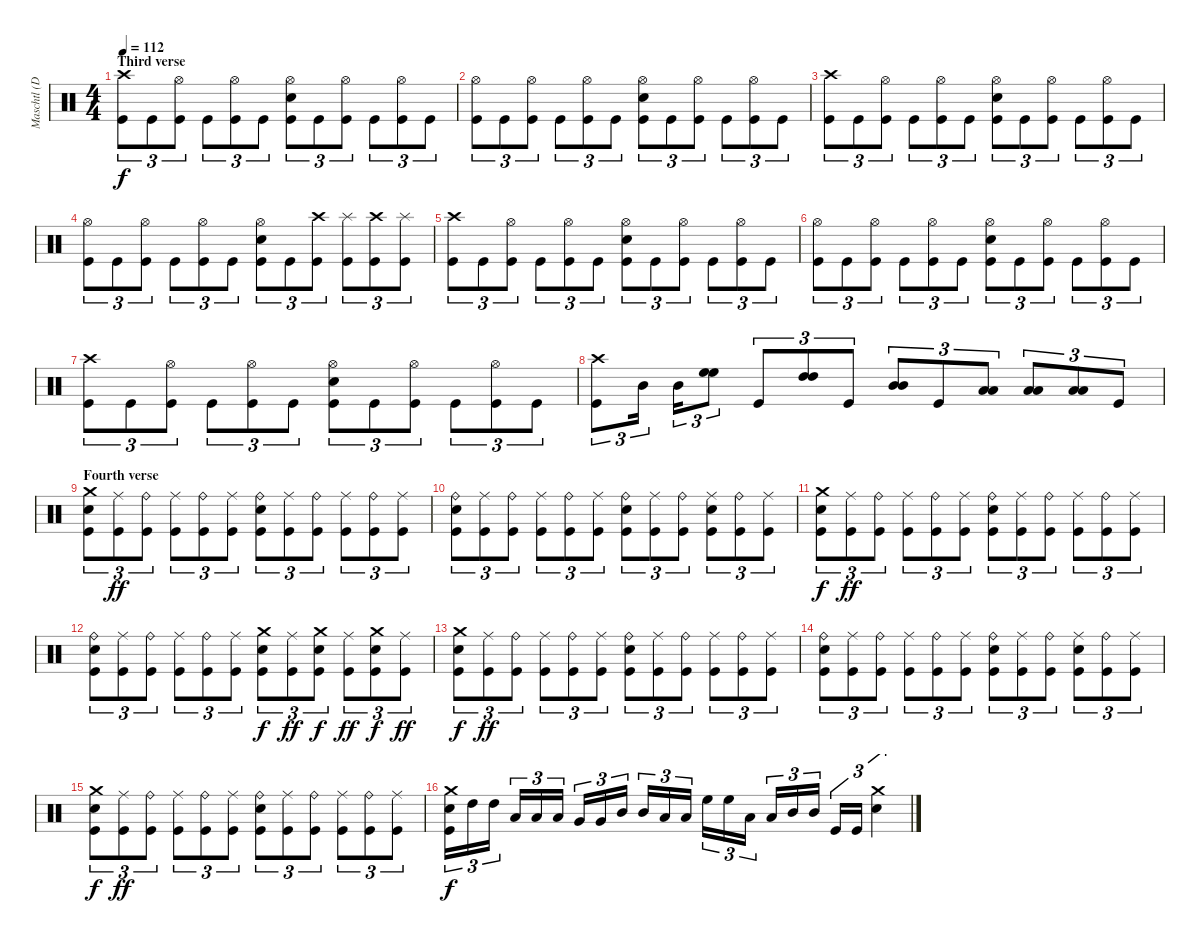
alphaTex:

\track ("Maschtl (Drums)" "Maschtl (D") {instrument percussion}
\staff {score}
\articulation defaults
\ts (4 4)
\section ("" "Third verse")
\tempo 112
\clef neutral
\ks c
("Crash high (hit)" "Kick (hit)").8{tu (3 2) dy f} "Kick (hit)".8{tu (3 2)} ("Hi-Hat (open)" "Kick (hit)").8{tu (3 2)} "Kick (hit)".8{tu (3 2)} ("Hi-Hat (open)" "Kick (hit)").8{tu (3 2)} "Kick (hit)".8{tu (3 2)} ("Hi-Hat (open)" "Electric Snare (hit)" "Kick (hit)").8{tu (3 2)} "Kick (hit)".8{tu (3 2)} ("Hi-Hat (open)" "Kick (hit)").8{tu (3 2)} "Kick (hit)".8{tu (3 2)} ("Hi-Hat (open)" "Kick (hit)").8{tu (3 2)} "Kick (hit)".8{tu (3 2)} |
("Hi-Hat (open)" "Kick (hit)").8{tu (3 2)} "Kick (hit)".8{tu (3 2)} ("Hi-Hat (open)" "Kick (hit)").8{tu (3 2)} "Kick (hit)".8{tu (3 2)} ("Hi-Hat (open)" "Kick (hit)").8{tu (3 2)} "Kick (hit)".8{tu (3 2)} ("Hi-Hat (open)" "Electric Snare (hit)" "Kick (hit)").8{tu (3 2)} "Kick (hit)".8{tu (3 2)} ("Hi-Hat (open)" "Kick (hit)").8{tu (3 2)} "Kick (hit)".8{tu (3 2)} ("Hi-Hat (open)" "Kick (hit)").8{tu (3 2)} "Kick (hit)".8{tu (3 2)} |
("Crash high (hit)" "Kick (hit)").8{tu (3 2)} "Kick (hit)".8{tu (3 2)} ("Hi-Hat (open)" "Kick (hit)").8{tu (3 2)} "Kick (hit)".8{tu (3 2)} ("Hi-Hat (open)" "Kick (hit)").8{tu (3 2)} "Kick (hit)".8{tu (3 2)} ("Hi-Hat (open)" "Electric Snare (hit)" "Kick (hit)").8{tu (3 2)} "Kick (hit)".8{tu (3 2)} ("Hi-Hat (open)" "Kick (hit)").8{tu (3 2)} "Kick (hit)".8{tu (3 2)} ("Hi-Hat (open)" "Kick (hit)").8{tu (3 2)} "Kick (hit)".8{tu (3 2)} |
("Hi-Hat (open)" "Kick (hit)").8{tu (3 2)} "Kick (hit)".8{tu (3 2)} ("Hi-Hat (open)" "Kick (hit)").8{tu (3 2)} "Kick (hit)".8{tu (3 2)} ("Hi-Hat (open)" "Kick (hit)").8{tu (3 2)} "Kick (hit)".8{tu (3 2)} ("Hi-Hat (open)" "Electric Snare (hit)" "Kick (hit)").8{tu (3 2)} "Kick (hit)".8{tu (3 2)} ("Crash high (hit)" "Kick (hit)").8{tu (3 2)} ("Splash (hit)" "Kick (hit)").8{tu (3 2)} ("Crash high (hit)" "Kick (hit)").8{tu (3 2)} ("Splash (hit)" "Kick (hit)").8{tu (3 2)} |
("Crash high (hit)" "Kick (hit)").8{tu (3 2)} "Kick (hit)".8{tu (3 2)} ("Hi-Hat (open)" "Kick (hit)").8{tu (3 2)} "Kick (hit)".8{tu (3 2)} ("Hi-Hat (open)" "Kick (hit)").8{tu (3 2)} "Kick (hit)".8{tu (3 2)} ("Hi-Hat (open)" "Electric Snare (hit)" "Kick (hit)").8{tu (3 2)} "Kick (hit)".8{tu (3 2)} ("Hi-Hat (open)" "Kick (hit)").8{tu (3 2)} "Kick (hit)".8{tu (3 2)} ("Hi-Hat (open)" "Kick (hit)").8{tu (3 2)} "Kick (hit)".8{tu (3 2)} |
("Hi-Hat (open)" "Kick (hit)").8{tu (3 2)} "Kick (hit)".8{tu (3 2)} ("Hi-Hat (open)" "Kick (hit)").8{tu (3 2)} "Kick (hit)".8{tu (3 2)} ("Hi-Hat (open)" "Kick (hit)").8{tu (3 2)} "Kick (hit)".8{tu (3 2)} ("Hi-Hat (open)" "Electric Snare (hit)" "Kick (hit)").8{tu (3 2)} "Kick (hit)".8{tu (3 2)} ("Hi-Hat (open)" "Kick (hit)").8{tu (3 2)} "Kick (hit)".8{tu (3 2)} ("Hi-Hat (open)" "Kick (hit)").8{tu (3 2)} "Kick (hit)".8{tu (3 2)} |
("Crash high (hit)" "Kick (hit)").8{tu (3 2)} "Kick (hit)".8{tu (3 2)} ("Hi-Hat (open)" "Kick (hit)").8{tu (3 2)} "Kick (hit)".8{tu (3 2)} ("Hi-Hat (open)" "Kick (hit)").8{tu (3 2)} "Kick (hit)".8{tu (3 2)} ("Hi-Hat (open)" "Electric Snare (hit)" "Kick (hit)").8{tu (3 2)} "Kick (hit)".8{tu (3 2)} ("Hi-Hat (open)" "Kick (hit)").8{tu (3 2)} "Kick (hit)".8{tu (3 2)} ("Hi-Hat (open)" "Kick (hit)").8{tu (3 2)} "Kick (hit)".8{tu (3 2)} |
("Crash high (hit)" "Kick (hit)").8{tu (3 2)} "Mid Tom (hit)".16{tu (3 2)} "Mid Tom (hit)".16{tu (3 2)} ("High Floor Tom (hit)" "High Floor Tom (hit)").8{tu (3 2) bu 60} "Kick (hit)".8{tu (3 2)} ("High Tom (hit)" "High Tom (hit)").8{tu (3 2) bu 60} "Kick (hit)".8{tu (3 2)} ("Mid Tom (hit)" "Mid Tom (hit)").8{tu (3 2) bu 60} "Kick (hit)".8{tu (3 2)} ("Low Tom (hit)" "Low Tom (hit)").8{tu (3 2) bu 60} ("Low Tom (hit)" "Low Tom (hit)").8{tu (3 2) bu 60} ("Low Tom (hit)" "Low Tom (hit)").8{tu (3 2) bu 60} "Kick (hit)".8{tu (3 2)} |
\section ("" "Fourth verse")
("Crash medium (hit)" "Electric Snare (hit)" "Kick (hit)").8{tu (3 2)} ("Ride (middle)" "Kick (hit)").8{tu (3 2) dy ff} ("Ride (bell)" "Kick (hit)").8{tu (3 2)} ("Ride (middle)" "Kick (hit)").8{tu (3 2)} ("Ride (bell)" "Kick (hit)").8{tu (3 2)} ("Ride (middle)" "Kick (hit)").8{tu (3 2)} ("Ride (bell)" "Electric Snare (hit)" "Kick (hit)").8{tu (3 2)} ("Ride (middle)" "Kick (hit)").8{tu (3 2)} ("Ride (bell)" "Kick (hit)").8{tu (3 2)} ("Ride (middle)" "Kick (hit)").8{tu (3 2)} ("Ride (bell)" "Kick (hit)").8{tu (3 2)} ("Ride (middle)" "Kick (hit)").8{tu (3 2)} |
("Ride (bell)" "Electric Snare (hit)" "Kick (hit)").8{tu (3 2)} ("Ride (middle)" "Kick (hit)").8{tu (3 2)} ("Ride (bell)" "Kick (hit)").8{tu (3 2)} ("Ride (middle)" "Kick (hit)").8{tu (3 2)} ("Ride (bell)" "Kick (hit)").8{tu (3 2)} ("Ride (middle)" "Kick (hit)").8{tu (3 2)} ("Ride (bell)" "Electric Snare (hit)" "Kick (hit)").8{tu (3 2)} ("Ride (middle)" "Kick (hit)").8{tu (3 2)} ("Ride (bell)" "Kick (hit)").8{tu (3 2)} ("Ride (middle)" "Electric Snare (hit)" "Kick (hit)").8{tu (3 2)} ("Ride (bell)" "Kick (hit)").8{tu (3 2)} ("Ride (middle)" "Kick (hit)").8{tu (3 2)} |
("Crash medium (hit)" "Electric Snare (hit)" "Kick (hit)").8{tu (3 2) dy f} ("Ride (middle)" "Kick (hit)").8{tu (3 2) dy ff} ("Ride (bell)" "Kick (hit)").8{tu (3 2)} ("Ride (middle)" "Kick (hit)").8{tu (3 2)} ("Ride (bell)" "Kick (hit)").8{tu (3 2)} ("Ride (middle)" "Kick (hit)").8{tu (3 2)} ("Ride (bell)" "Electric Snare (hit)" "Kick (hit)").8{tu (3 2)} ("Ride (middle)" "Kick (hit)").8{tu (3 2)} ("Ride (bell)" "Kick (hit)").8{tu (3 2)} ("Ride (middle)" "Kick (hit)").8{tu (3 2)} ("Ride (bell)" "Kick (hit)").8{tu (3 2)} ("Ride (middle)" "Kick (hit)").8{tu (3 2)} |
("Ride (bell)" "Electric Snare (hit)" "Kick (hit)").8{tu (3 2)} ("Ride (middle)" "Kick (hit)").8{tu (3 2)} ("Ride (bell)" "Kick (hit)").8{tu (3 2)} ("Ride (middle)" "Kick (hit)").8{tu (3 2)} ("Ride (bell)" "Kick (hit)").8{tu (3 2)} ("Ride (middle)" "Kick (hit)").8{tu (3 2)} ("Crash medium (hit)" "Electric Snare (hit)" "Kick (hit)").8{tu (3 2) dy f} ("Ride (middle)" "Kick (hit)").8{tu (3 2) dy ff} ("Crash medium (hit)" "Electric Snare (hit)" "Kick (hit)").8{tu (3 2) dy f} ("Ride (middle)" "Kick (hit)").8{tu (3 2) dy ff} ("Crash medium (hit)" "Electric Snare (hit)" "Kick (hit)").8{tu (3 2) dy f} ("Ride (middle)" "Kick (hit)").8{tu (3 2) dy ff} |
("Crash medium (hit)" "Electric Snare (hit)" "Kick (hit)").8{tu (3 2) dy f} ("Ride (middle)" "Kick (hit)").8{tu (3 2) dy ff} ("Ride (bell)" "Kick (hit)").8{tu (3 2)} ("Ride (middle)" "Kick (hit)").8{tu (3 2)} ("Ride (bell)" "Kick (hit)").8{tu (3 2)} ("Ride (middle)" "Kick (hit)").8{tu (3 2)} ("Ride (bell)" "Electric Snare (hit)" "Kick (hit)").8{tu (3 2)} ("Ride (middle)" "Kick (hit)").8{tu (3 2)} ("Ride (bell)" "Kick (hit)").8{tu (3 2)} ("Ride (middle)" "Kick (hit)").8{tu (3 2)} ("Ride (bell)" "Kick (hit)").8{tu (3 2)} ("Ride (middle)" "Kick (hit)").8{tu (3 2)} |
("Ride (bell)" "Electric Snare (hit)" "Kick (hit)").8{tu (3 2)} ("Ride (middle)" "Kick (hit)").8{tu (3 2)} ("Ride (bell)" "Kick (hit)").8{tu (3 2)} ("Ride (middle)" "Kick (hit)").8{tu (3 2)} ("Ride (bell)" "Kick (hit)").8{tu (3 2)} ("Ride (middle)" "Kick (hit)").8{tu (3 2)} ("Ride (bell)" "Electric Snare (hit)" "Kick (hit)").8{tu (3 2)} ("Ride (middle)" "Kick (hit)").8{tu (3 2)} ("Ride (bell)" "Kick (hit)").8{tu (3 2)} ("Ride (middle)" "Electric Snare (hit)" "Kick (hit)").8{tu (3 2)} ("Ride (bell)" "Kick (hit)").8{tu (3 2)} ("Ride (middle)" "Kick (hit)").8{tu (3 2)} |
("Crash medium (hit)" "Electric Snare (hit)" "Kick (hit)").8{tu (3 2) dy f} ("Ride (middle)" "Kick (hit)").8{tu (3 2) dy ff} ("Ride (bell)" "Kick (hit)").8{tu (3 2)} ("Ride (middle)" "Kick (hit)").8{tu (3 2)} ("Ride (bell)" "Kick (hit)").8{tu (3 2)} ("Ride (middle)" "Kick (hit)").8{tu (3 2)} ("Ride (bell)" "Electric Snare (hit)" "Kick (hit)").8{tu (3 2)} ("Ride (middle)" "Kick (hit)").8{tu (3 2)} ("Ride (bell)" "Kick (hit)").8{tu (3 2)} ("Ride (middle)" "Kick (hit)").8{tu (3 2)} ("Ride (bell)" "Kick (hit)").8{tu (3 2)} ("Ride (middle)" "Kick (hit)").8{tu (3 2)} |
("Crash medium (hit)" "Electric Snare (hit)" "Kick (hit)").16{tu (3 2) dy f} "High Tom (hit)".16{tu (3 2)} "High Tom (hit)".16{tu (3 2)} "Low Tom (hit)".16{tu (3 2)} "Low Tom (hit)".16{tu (3 2)} "Low Tom (hit)".16{tu (3 2)} "Very Low Tom (hit)".16{tu (3 2)} "Very Low Tom (hit)".16{tu (3 2)} "Mid Tom (hit)".16{tu (3 2)} "Mid Tom (hit)".16{tu (3 2)} "Low Tom (hit)".16{tu (3 2)} "Low Tom (hit)".16{tu (3 2)} "High Floor Tom (hit)".16{tu (3 2)} "High Floor Tom (hit)".16{tu (3 2)} "Low Tom (hit)".16{tu (3 2)} "Low Tom (hit)".16{tu (3 2)} "Mid Tom (hit)".16{tu (3 2)} "Mid Tom (hit)".16{tu (3 2)} "Kick (hit)".16{tu (3 2)} "Kick (hit)".16{tu (3 2)} ("Crash medium (hit)" "Electric Snare (hit)").4{tu (3 2)}
